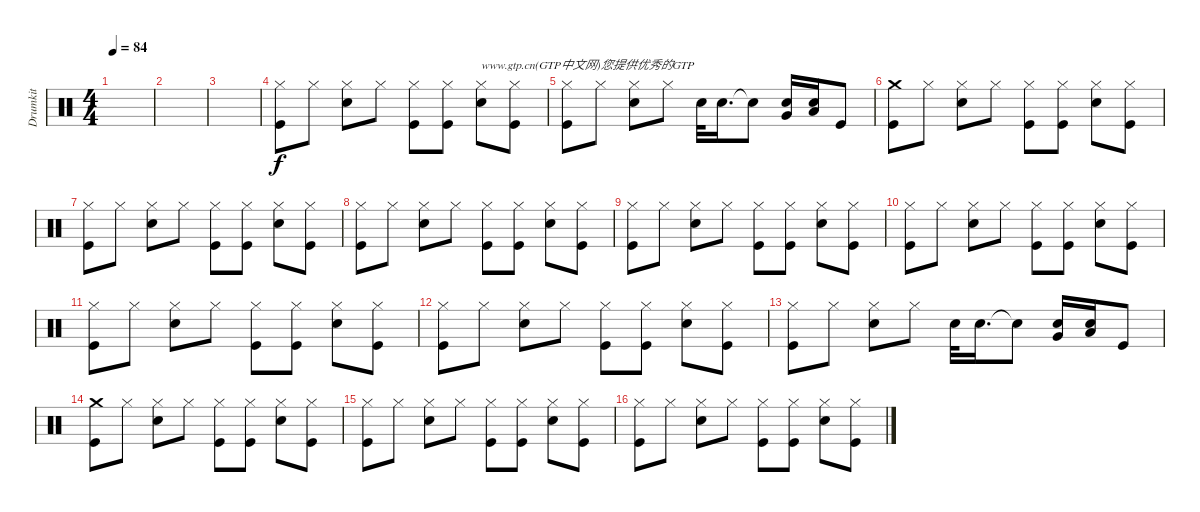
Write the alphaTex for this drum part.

\track ("Drumkit" "Drumkit") {instrument percussion}
\staff {score}
\articulation defaults
\ts (4 4)
\tempo 84
\clef neutral
\ks c
|
|
|
("Kick (hit)" "Hi-Hat (closed)").8 "Hi-Hat (closed)".8 ("Snare (hit) 2" "Hi-Hat (closed)").8 "Hi-Hat (closed)".8 ("Kick (hit)" "Hi-Hat (closed)").8 ("Kick (hit)" "Hi-Hat (closed)").8 ("Snare (hit) 2" "Hi-Hat (closed)").8{txt "www.gtp.cn(GTP中文网)您提供优秀的GTP"} ("Kick (hit)" "Hi-Hat (closed)").8 |
("Kick (hit)" "Hi-Hat (closed)").8 "Hi-Hat (closed)".8 ("Snare (hit) 2" "Hi-Hat (closed)").8 "Hi-Hat (closed)".8 "Snare (hit) 2".32 "Snare (hit) 2".16{d} "Snare (hit) 2"{t}.8 ("Snare (hit) 2" "Very Low Tom (hit)").16 ("Snare (hit) 2" "Low Tom (hit)").16 "Kick (hit)".8 |
("Kick (hit)" "Crash medium (hit)").8 "Hi-Hat (closed)".8 ("Snare (hit) 2" "Hi-Hat (closed)").8 "Hi-Hat (closed)".8 ("Kick (hit)" "Hi-Hat (closed)").8 ("Kick (hit)" "Hi-Hat (closed)").8 ("Snare (hit) 2" "Hi-Hat (closed)").8 ("Kick (hit)" "Hi-Hat (closed)").8 |
("Kick (hit)" "Hi-Hat (closed)").8 "Hi-Hat (closed)".8 ("Snare (hit) 2" "Hi-Hat (closed)").8 "Hi-Hat (closed)".8 ("Kick (hit)" "Hi-Hat (closed)").8 ("Kick (hit)" "Hi-Hat (closed)").8 ("Snare (hit) 2" "Hi-Hat (closed)").8 ("Kick (hit)" "Hi-Hat (closed)").8 |
("Kick (hit)" "Hi-Hat (closed)").8 "Hi-Hat (closed)".8 ("Snare (hit) 2" "Hi-Hat (closed)").8 "Hi-Hat (closed)".8 ("Kick (hit)" "Hi-Hat (closed)").8 ("Kick (hit)" "Hi-Hat (closed)").8 ("Snare (hit) 2" "Hi-Hat (closed)").8 ("Kick (hit)" "Hi-Hat (closed)").8 |
("Kick (hit)" "Hi-Hat (closed)").8 "Hi-Hat (closed)".8 ("Snare (hit) 2" "Hi-Hat (closed)").8 "Hi-Hat (closed)".8 ("Kick (hit)" "Hi-Hat (closed)").8 ("Kick (hit)" "Hi-Hat (closed)").8 ("Snare (hit) 2" "Hi-Hat (closed)").8 ("Kick (hit)" "Hi-Hat (closed)").8 |
("Kick (hit)" "Hi-Hat (closed)").8 "Hi-Hat (closed)".8 ("Snare (hit) 2" "Hi-Hat (closed)").8 "Hi-Hat (closed)".8 ("Kick (hit)" "Hi-Hat (closed)").8 ("Kick (hit)" "Hi-Hat (closed)").8 ("Snare (hit) 2" "Hi-Hat (closed)").8 ("Kick (hit)" "Hi-Hat (closed)").8 |
("Kick (hit)" "Hi-Hat (closed)").8 "Hi-Hat (closed)".8 ("Snare (hit) 2" "Hi-Hat (closed)").8 "Hi-Hat (closed)".8 ("Kick (hit)" "Hi-Hat (closed)").8 ("Kick (hit)" "Hi-Hat (closed)").8 ("Snare (hit) 2" "Hi-Hat (closed)").8 ("Kick (hit)" "Hi-Hat (closed)").8 |
("Kick (hit)" "Hi-Hat (closed)").8 "Hi-Hat (closed)".8 ("Snare (hit) 2" "Hi-Hat (closed)").8 "Hi-Hat (closed)".8 ("Kick (hit)" "Hi-Hat (closed)").8 ("Kick (hit)" "Hi-Hat (closed)").8 ("Snare (hit) 2" "Hi-Hat (closed)").8 ("Kick (hit)" "Hi-Hat (closed)").8 |
("Kick (hit)" "Hi-Hat (closed)").8 "Hi-Hat (closed)".8 ("Snare (hit) 2" "Hi-Hat (closed)").8 "Hi-Hat (closed)".8 "Snare (hit) 2".32 "Snare (hit) 2".16{d} "Snare (hit) 2"{t}.8 ("Snare (hit) 2" "Very Low Tom (hit)").16 ("Snare (hit) 2" "Low Tom (hit)").16 "Kick (hit)".8 |
("Kick (hit)" "Crash medium (hit)").8 "Hi-Hat (closed)".8 ("Snare (hit) 2" "Hi-Hat (closed)").8 "Hi-Hat (closed)".8 ("Kick (hit)" "Hi-Hat (closed)").8 ("Kick (hit)" "Hi-Hat (closed)").8 ("Snare (hit) 2" "Hi-Hat (closed)").8 ("Kick (hit)" "Hi-Hat (closed)").8 |
("Kick (hit)" "Hi-Hat (closed)").8 "Hi-Hat (closed)".8 ("Snare (hit) 2" "Hi-Hat (closed)").8 "Hi-Hat (closed)".8 ("Kick (hit)" "Hi-Hat (closed)").8 ("Kick (hit)" "Hi-Hat (closed)").8 ("Snare (hit) 2" "Hi-Hat (closed)").8 ("Kick (hit)" "Hi-Hat (closed)").8 |
("Kick (hit)" "Hi-Hat (closed)").8 "Hi-Hat (closed)".8 ("Snare (hit) 2" "Hi-Hat (closed)").8 "Hi-Hat (closed)".8 ("Kick (hit)" "Hi-Hat (closed)").8 ("Kick (hit)" "Hi-Hat (closed)").8 ("Snare (hit) 2" "Hi-Hat (closed)").8 ("Kick (hit)" "Hi-Hat (closed)").8
